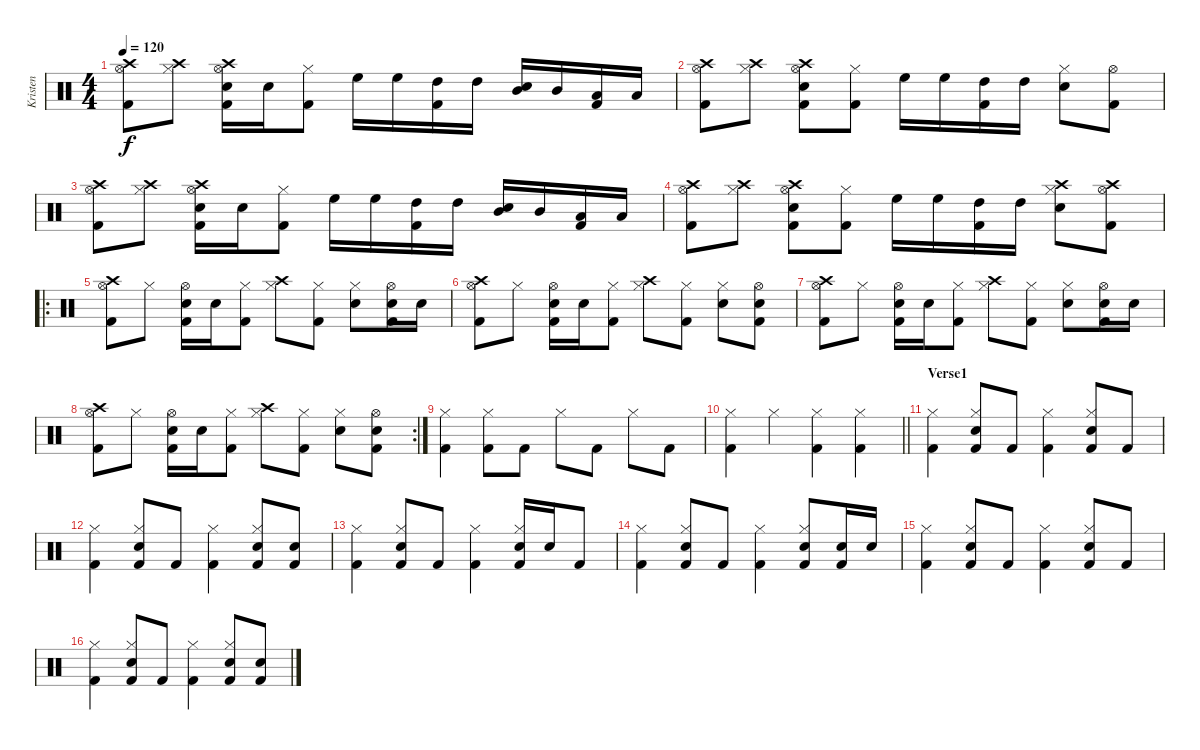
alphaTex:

\track ("Kristen" "Kristen") {instrument percussion}
\staff {score}
\articulation defaults
\ts (4 4)
\tempo 120
\clef neutral
\ks c
("Crash high (hit)" "Hi-Hat (open)" "Kick (hit) 2").8{dy f} ("Crash high (hit)" "Hi-Hat (closed)").8 ("Crash high (hit)" "Hi-Hat (open)" "Snare (hit) 2" "Kick (hit) 2").16 "Snare (hit) 2".16 ("Hi-Hat (closed)" "Kick (hit) 2").8 "High Floor Tom (hit)".16 "High Floor Tom (hit)".16 ("High Tom (hit)" "Kick (hit) 2").16 "High Tom (hit)".16 ("Mid Tom (hit)" "Snare (hit) 2").16 "Mid Tom (hit)".16 ("Low Tom (hit)" "Kick (hit) 2").16 "Low Tom (hit)".16 |
("Crash high (hit)" "Hi-Hat (open)" "Kick (hit) 2").8 ("Crash high (hit)" "Hi-Hat (closed)").8 ("Crash high (hit)" "Hi-Hat (open)" "Snare (hit) 2" "Kick (hit) 2").8 ("Hi-Hat (closed)" "Kick (hit) 2").8 "High Floor Tom (hit)".16 "High Floor Tom (hit)".16 ("High Tom (hit)" "Kick (hit) 2").16 "High Tom (hit)".16 ("Hi-Hat (closed)" "Snare (hit) 2").8 ("Hi-Hat (open)" "Kick (hit) 2").8 |
("Crash high (hit)" "Hi-Hat (open)" "Kick (hit) 2").8 ("Crash high (hit)" "Hi-Hat (closed)").8 ("Crash high (hit)" "Hi-Hat (open)" "Snare (hit) 2" "Kick (hit) 2").16 "Snare (hit) 2".16 ("Hi-Hat (closed)" "Kick (hit) 2").8 "High Floor Tom (hit)".16 "High Floor Tom (hit)".16 ("High Tom (hit)" "Kick (hit) 2").16 "High Tom (hit)".16 ("Mid Tom (hit)" "Snare (hit) 2").16 "Mid Tom (hit)".16 ("Low Tom (hit)" "Kick (hit) 2").16 "Low Tom (hit)".16 |
("Crash high (hit)" "Hi-Hat (open)" "Kick (hit) 2").8 ("Crash high (hit)" "Hi-Hat (closed)").8 ("Crash high (hit)" "Hi-Hat (open)" "Snare (hit) 2" "Kick (hit) 2").8 ("Hi-Hat (closed)" "Kick (hit) 2").8 "High Floor Tom (hit)".16 "High Floor Tom (hit)".16 ("High Tom (hit)" "Kick (hit) 2").16 "High Tom (hit)".16 ("Crash high (hit)" "Hi-Hat (closed)" "Snare (hit) 2").8 ("Crash high (hit)" "Hi-Hat (open)" "Kick (hit) 2").8 |
\ro
("Crash high (hit)" "Hi-Hat (open)" "Kick (hit) 2").8 "Hi-Hat (closed)".8 ("Hi-Hat (open)" "Snare (hit) 2" "Kick (hit) 2").16 "Snare (hit) 2".16 ("Hi-Hat (closed)" "Kick (hit) 2").8 ("Crash high (hit)" "Hi-Hat (closed)").8 ("Hi-Hat (closed)" "Kick (hit) 2").8 ("Hi-Hat (closed)" "Snare (hit) 2").8 ("Hi-Hat (open)" "Snare (hit) 2" "Kick (hit) 2").16 "Snare (hit) 2".16 |
("Crash high (hit)" "Hi-Hat (open)" "Kick (hit) 2").8 "Hi-Hat (closed)".8 ("Hi-Hat (open)" "Snare (hit) 2" "Kick (hit) 2").16 "Snare (hit) 2".16 ("Hi-Hat (closed)" "Kick (hit) 2").8 ("Crash high (hit)" "Hi-Hat (closed)").8 ("Hi-Hat (closed)" "Kick (hit) 2").8 ("Hi-Hat (closed)" "Snare (hit) 2").8 ("Hi-Hat (open)" "Snare (hit) 2" "Kick (hit) 2").8 |
("Crash high (hit)" "Hi-Hat (open)" "Kick (hit) 2").8 "Hi-Hat (closed)".8 ("Hi-Hat (open)" "Snare (hit) 2" "Kick (hit) 2").16 "Snare (hit) 2".16 ("Hi-Hat (closed)" "Kick (hit) 2").8 ("Crash high (hit)" "Hi-Hat (closed)").8 ("Hi-Hat (closed)" "Kick (hit) 2").8 ("Hi-Hat (closed)" "Snare (hit) 2").8 ("Hi-Hat (open)" "Snare (hit) 2" "Kick (hit) 2").16 "Snare (hit) 2".16 |
\rc 2
("Crash high (hit)" "Hi-Hat (open)" "Kick (hit) 2").8 "Hi-Hat (closed)".8 ("Hi-Hat (open)" "Snare (hit) 2" "Kick (hit) 2").16 "Snare (hit) 2".16 ("Hi-Hat (closed)" "Kick (hit) 2").8 ("Crash high (hit)" "Hi-Hat (closed)").8 ("Hi-Hat (closed)" "Kick (hit) 2").8 ("Hi-Hat (closed)" "Snare (hit) 2").8 ("Hi-Hat (open)" "Snare (hit) 2" "Kick (hit) 2").8 |
("Hi-Hat (closed)" "Kick (hit) 2").4 ("Hi-Hat (closed)" "Kick (hit) 2").8 "Kick (hit) 2".8 "Hi-Hat (closed)".8 "Kick (hit) 2".8 "Hi-Hat (closed)".8 "Kick (hit) 2".8 |
\barLineRight lightlight
("Hi-Hat (closed)" "Kick (hit) 2").4 "Hi-Hat (closed)".4 ("Hi-Hat (closed)" "Kick (hit) 2").4 ("Hi-Hat (closed)" "Kick (hit) 2").4 |
\section ("" "Verse1")
("Hi-Hat (closed)" "Kick (hit) 2").4 ("Hi-Hat (closed)" "Snare (hit) 2" "Kick (hit) 2").8 "Kick (hit) 2".8 ("Hi-Hat (closed)" "Kick (hit) 2").4 ("Hi-Hat (closed)" "Snare (hit) 2" "Kick (hit) 2").8 "Kick (hit) 2".8 |
("Hi-Hat (closed)" "Kick (hit) 2").4 ("Hi-Hat (closed)" "Snare (hit) 2" "Kick (hit) 2").8 "Kick (hit) 2".8 ("Hi-Hat (closed)" "Kick (hit) 2").4 ("Hi-Hat (closed)" "Snare (hit) 2" "Kick (hit) 2").8 ("Snare (hit) 2" "Kick (hit) 2").8 |
("Hi-Hat (closed)" "Kick (hit) 2").4 ("Hi-Hat (closed)" "Snare (hit) 2" "Kick (hit) 2").8 "Kick (hit) 2".8 ("Hi-Hat (closed)" "Kick (hit) 2").4 ("Hi-Hat (closed)" "Snare (hit) 2" "Kick (hit) 2").16 "Snare (hit) 2".16 "Kick (hit) 2".8 |
("Hi-Hat (closed)" "Kick (hit) 2").4 ("Hi-Hat (closed)" "Snare (hit) 2" "Kick (hit) 2").8 "Kick (hit) 2".8 ("Hi-Hat (closed)" "Kick (hit) 2").4 ("Hi-Hat (closed)" "Snare (hit) 2" "Kick (hit) 2").8 ("Snare (hit) 2" "Kick (hit) 2").16 "Snare (hit) 2".16 |
("Hi-Hat (closed)" "Kick (hit) 2").4 ("Hi-Hat (closed)" "Snare (hit) 2" "Kick (hit) 2").8 "Kick (hit) 2".8 ("Hi-Hat (closed)" "Kick (hit) 2").4 ("Hi-Hat (closed)" "Snare (hit) 2" "Kick (hit) 2").8 "Kick (hit) 2".8 |
("Hi-Hat (closed)" "Kick (hit) 2").4 ("Hi-Hat (closed)" "Snare (hit) 2" "Kick (hit) 2").8 "Kick (hit) 2".8 ("Hi-Hat (closed)" "Kick (hit) 2").4 ("Hi-Hat (closed)" "Snare (hit) 2" "Kick (hit) 2").8 ("Snare (hit) 2" "Kick (hit) 2").8
